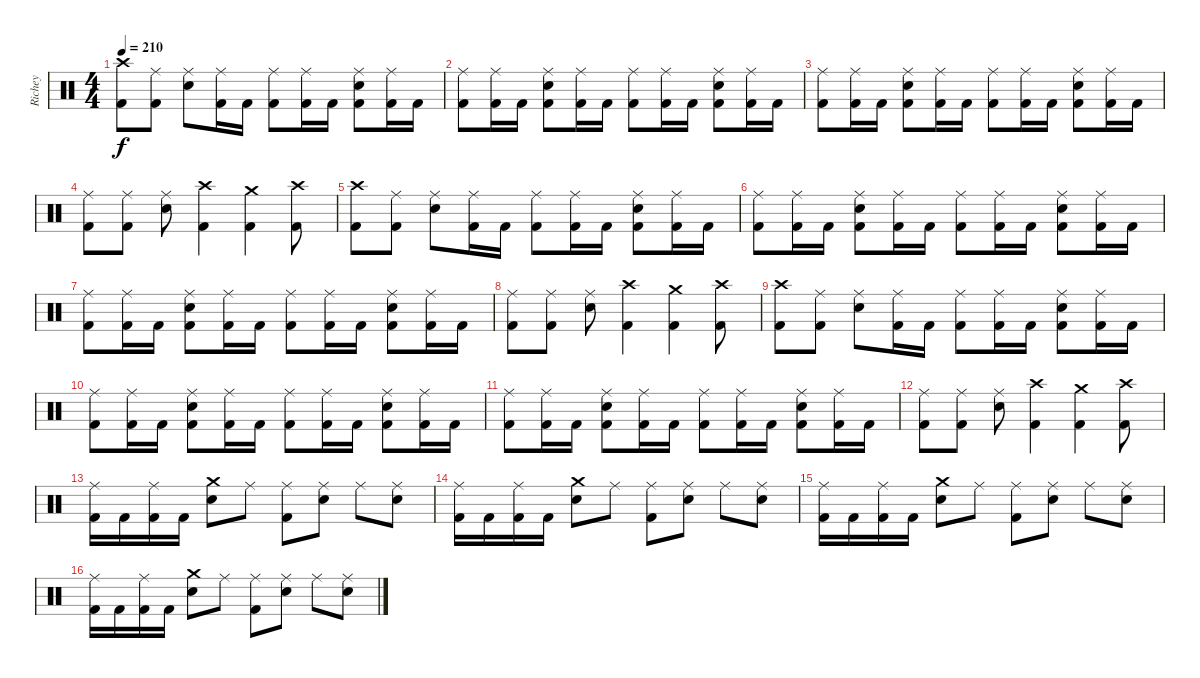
\track ("Richey" "Richey") {instrument percussion}
\staff {score}
\articulation defaults
\ts (4 4)
\tempo 210
\clef neutral
\ks c
("Crash high (hit)" "Kick (hit) 2").8{dy f} ("Ride (middle)" "Kick (hit) 2").8 ("Ride (middle)" "Snare (hit) 2").8 ("Ride (middle)" "Kick (hit) 2").16 "Kick (hit) 2".16 ("Ride (middle)" "Kick (hit) 2").8 ("Ride (middle)" "Kick (hit) 2").16 "Kick (hit) 2".16 ("Ride (middle)" "Snare (hit) 2" "Kick (hit) 2").8 ("Ride (middle)" "Kick (hit) 2").16 "Kick (hit) 2".16 |
("Ride (middle)" "Kick (hit) 2").8 ("Ride (middle)" "Kick (hit) 2").16 "Kick (hit) 2".16 ("Ride (middle)" "Snare (hit) 2" "Kick (hit) 2").8 ("Ride (middle)" "Kick (hit) 2").16 "Kick (hit) 2".16 ("Ride (middle)" "Kick (hit) 2").8 ("Ride (middle)" "Kick (hit) 2").16 "Kick (hit) 2".16 ("Ride (middle)" "Snare (hit) 2" "Kick (hit) 2").8 ("Ride (middle)" "Kick (hit) 2").16 "Kick (hit) 2".16 |
("Ride (middle)" "Kick (hit) 2").8 ("Ride (middle)" "Kick (hit) 2").16 "Kick (hit) 2".16 ("Ride (middle)" "Snare (hit) 2" "Kick (hit) 2").8 ("Ride (middle)" "Kick (hit) 2").16 "Kick (hit) 2".16 ("Ride (middle)" "Kick (hit) 2").8 ("Ride (middle)" "Kick (hit) 2").16 "Kick (hit) 2".16 ("Ride (middle)" "Snare (hit) 2" "Kick (hit) 2").8 ("Ride (middle)" "Kick (hit) 2").16 "Kick (hit) 2".16 |
("Ride (middle)" "Kick (hit) 2").8 ("Ride (middle)" "Kick (hit) 2").8 ("Ride (middle)" "Snare (hit) 2").8 ("Crash high (hit)" "Kick (hit) 2").4 ("Crash medium (hit)" "Kick (hit) 2").4 ("Crash high (hit)" "Kick (hit) 2").8 |
("Crash high (hit)" "Kick (hit) 2").8 ("Ride (middle)" "Kick (hit) 2").8 ("Ride (middle)" "Snare (hit) 2").8 ("Ride (middle)" "Kick (hit) 2").16 "Kick (hit) 2".16 ("Ride (middle)" "Kick (hit) 2").8 ("Ride (middle)" "Kick (hit) 2").16 "Kick (hit) 2".16 ("Ride (middle)" "Snare (hit) 2" "Kick (hit) 2").8 ("Ride (middle)" "Kick (hit) 2").16 "Kick (hit) 2".16 |
("Ride (middle)" "Kick (hit) 2").8 ("Ride (middle)" "Kick (hit) 2").16 "Kick (hit) 2".16 ("Ride (middle)" "Snare (hit) 2" "Kick (hit) 2").8 ("Ride (middle)" "Kick (hit) 2").16 "Kick (hit) 2".16 ("Ride (middle)" "Kick (hit) 2").8 ("Ride (middle)" "Kick (hit) 2").16 "Kick (hit) 2".16 ("Ride (middle)" "Snare (hit) 2" "Kick (hit) 2").8 ("Ride (middle)" "Kick (hit) 2").16 "Kick (hit) 2".16 |
("Ride (middle)" "Kick (hit) 2").8 ("Ride (middle)" "Kick (hit) 2").16 "Kick (hit) 2".16 ("Ride (middle)" "Snare (hit) 2" "Kick (hit) 2").8 ("Ride (middle)" "Kick (hit) 2").16 "Kick (hit) 2".16 ("Ride (middle)" "Kick (hit) 2").8 ("Ride (middle)" "Kick (hit) 2").16 "Kick (hit) 2".16 ("Ride (middle)" "Snare (hit) 2" "Kick (hit) 2").8 ("Ride (middle)" "Kick (hit) 2").16 "Kick (hit) 2".16 |
("Ride (middle)" "Kick (hit) 2").8 ("Ride (middle)" "Kick (hit) 2").8 ("Ride (middle)" "Snare (hit) 2").8 ("Crash high (hit)" "Kick (hit) 2").4 ("Crash medium (hit)" "Kick (hit) 2").4 ("Crash high (hit)" "Kick (hit) 2").8 |
("Crash high (hit)" "Kick (hit) 2").8 ("Ride (middle)" "Kick (hit) 2").8 ("Ride (middle)" "Snare (hit) 2").8 ("Ride (middle)" "Kick (hit) 2").16 "Kick (hit) 2".16 ("Ride (middle)" "Kick (hit) 2").8 ("Ride (middle)" "Kick (hit) 2").16 "Kick (hit) 2".16 ("Ride (middle)" "Snare (hit) 2" "Kick (hit) 2").8 ("Ride (middle)" "Kick (hit) 2").16 "Kick (hit) 2".16 |
("Ride (middle)" "Kick (hit) 2").8 ("Ride (middle)" "Kick (hit) 2").16 "Kick (hit) 2".16 ("Ride (middle)" "Snare (hit) 2" "Kick (hit) 2").8 ("Ride (middle)" "Kick (hit) 2").16 "Kick (hit) 2".16 ("Ride (middle)" "Kick (hit) 2").8 ("Ride (middle)" "Kick (hit) 2").16 "Kick (hit) 2".16 ("Ride (middle)" "Snare (hit) 2" "Kick (hit) 2").8 ("Ride (middle)" "Kick (hit) 2").16 "Kick (hit) 2".16 |
("Ride (middle)" "Kick (hit) 2").8 ("Ride (middle)" "Kick (hit) 2").16 "Kick (hit) 2".16 ("Ride (middle)" "Snare (hit) 2" "Kick (hit) 2").8 ("Ride (middle)" "Kick (hit) 2").16 "Kick (hit) 2".16 ("Ride (middle)" "Kick (hit) 2").8 ("Ride (middle)" "Kick (hit) 2").16 "Kick (hit) 2".16 ("Ride (middle)" "Snare (hit) 2" "Kick (hit) 2").8 ("Ride (middle)" "Kick (hit) 2").16 "Kick (hit) 2".16 |
("Ride (middle)" "Kick (hit) 2").8 ("Ride (middle)" "Kick (hit) 2").8 ("Ride (middle)" "Snare (hit) 2").8 ("Crash high (hit)" "Kick (hit) 2").4 ("Crash medium (hit)" "Kick (hit) 2").4 ("Crash high (hit)" "Kick (hit) 2").8 |
("Ride (middle)" "Kick (hit) 2").16 "Kick (hit) 2".16 ("Ride (middle)" "Kick (hit) 2").16 "Kick (hit) 2".16 ("Crash medium (hit)" "Snare (hit) 2").8 "Ride (middle)".8 ("Ride (middle)" "Kick (hit) 2").8 ("Ride (middle)" "Snare (hit) 2").8 "Ride (middle)".8 ("Ride (middle)" "Snare (hit) 2").8 |
("Ride (middle)" "Kick (hit) 2").16 "Kick (hit) 2".16 ("Ride (middle)" "Kick (hit) 2").16 "Kick (hit) 2".16 ("Crash medium (hit)" "Snare (hit) 2").8 "Ride (middle)".8 ("Ride (middle)" "Kick (hit) 2").8 ("Ride (middle)" "Snare (hit) 2").8 "Ride (middle)".8 ("Ride (middle)" "Snare (hit) 2").8 |
("Ride (middle)" "Kick (hit) 2").16 "Kick (hit) 2".16 ("Ride (middle)" "Kick (hit) 2").16 "Kick (hit) 2".16 ("Crash medium (hit)" "Snare (hit) 2").8 "Ride (middle)".8 ("Ride (middle)" "Kick (hit) 2").8 ("Ride (middle)" "Snare (hit) 2").8 "Ride (middle)".8 ("Ride (middle)" "Snare (hit) 2").8 |
("Ride (middle)" "Kick (hit) 2").16 "Kick (hit) 2".16 ("Ride (middle)" "Kick (hit) 2").16 "Kick (hit) 2".16 ("Crash medium (hit)" "Snare (hit) 2").8 "Ride (middle)".8 ("Ride (middle)" "Kick (hit) 2").8 ("Ride (middle)" "Snare (hit) 2").8 "Ride (middle)".8 ("Ride (middle)" "Snare (hit) 2").8
